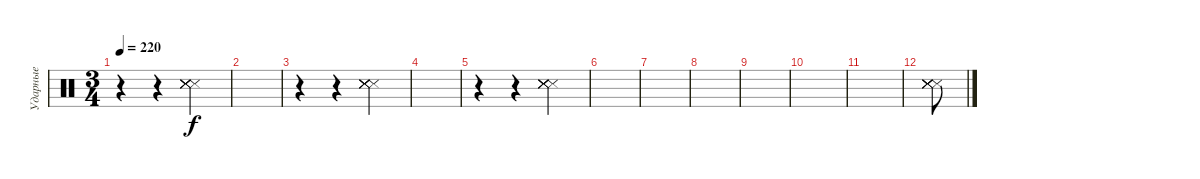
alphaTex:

\track ("Ударные" "Ударные") {instrument percussion}
\staff {score}
\articulation defaults
\ts (3 4)
\tempo 220
\clef neutral
\ks c
r.4{dy f} r.4 ("Snare (side stick) 3" "Snare (side stick) 3" "Snare (side stick) 3" "Snare (side stick) 3" "Snare (side stick) 3" "Snare (side stick) 3").4 |
|
r.4 r.4 ("Snare (side stick) 3" "Snare (side stick) 3" "Snare (side stick) 3" "Snare (side stick) 3" "Snare (side stick) 3" "Snare (side stick) 3").4 |
|
r.4 r.4 ("Snare (side stick) 3" "Snare (side stick) 3" "Snare (side stick) 3" "Snare (side stick) 3" "Snare (side stick) 3" "Snare (side stick) 3").4 |
|
|
|
|
|
|
("Snare (side stick) 3" "Snare (side stick) 3" "Snare (side stick) 3" "Snare (side stick) 3" "Snare (side stick) 3" "Snare (side stick) 3").8
